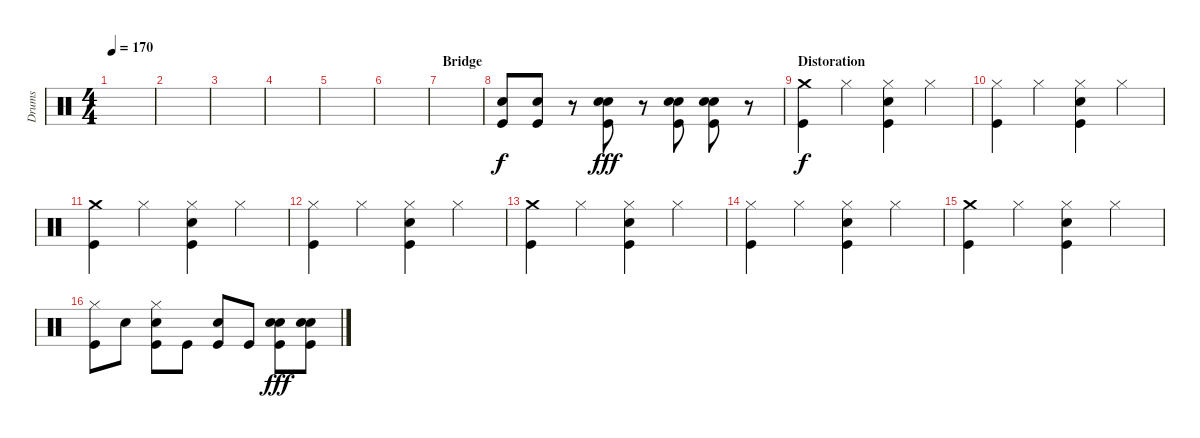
\track ("Drums" "Drums") {instrument percussion}
\staff {score}
\articulation defaults
\ts (4 4)
\tempo 170
\clef neutral
\ks c
|
|
|
|
|
|
\section ("" "Bridge")
|
("Snare (hit) 2" "Kick (hit)").8 ("Snare (hit) 2" "Kick (hit)").8 r.8 ("Electric Snare (hit)" "Snare (hit) 2" "Kick (hit)").8{dy fff} r.8 ("Electric Snare (hit)" "Snare (hit) 2" "Kick (hit)").8 ("Electric Snare (hit)" "Snare (hit) 2" "Kick (hit)").8 r.8 |
\section ("" "Distoration")
("Crash medium (hit)" "Kick (hit)").4{dy f} "Hi-Hat (closed)".4 ("Snare (hit) 2" "Hi-Hat (closed)" "Kick (hit)").4 "Hi-Hat (closed)".4 |
("Hi-Hat (closed)" "Kick (hit)").4 "Hi-Hat (closed)".4 ("Snare (hit) 2" "Hi-Hat (closed)" "Kick (hit)").4 "Hi-Hat (closed)".4 |
("Crash medium (hit)" "Kick (hit)").4 "Hi-Hat (closed)".4 ("Snare (hit) 2" "Hi-Hat (closed)" "Kick (hit)").4 "Hi-Hat (closed)".4 |
("Hi-Hat (closed)" "Kick (hit)").4 "Hi-Hat (closed)".4 ("Snare (hit) 2" "Hi-Hat (closed)" "Kick (hit)").4 "Hi-Hat (closed)".4 |
("Crash medium (hit)" "Kick (hit)").4 "Hi-Hat (closed)".4 ("Snare (hit) 2" "Hi-Hat (closed)" "Kick (hit)").4 "Hi-Hat (closed)".4 |
("Hi-Hat (closed)" "Kick (hit)").4 "Hi-Hat (closed)".4 ("Snare (hit) 2" "Hi-Hat (closed)" "Kick (hit)").4 "Hi-Hat (closed)".4 |
("Crash medium (hit)" "Kick (hit)").4 "Hi-Hat (closed)".4 ("Snare (hit) 2" "Hi-Hat (closed)" "Kick (hit)").4 "Hi-Hat (closed)".4 |
("Hi-Hat (closed)" "Kick (hit)").8 "Snare (hit) 2".8 ("Snare (hit) 2" "Hi-Hat (closed)" "Kick (hit)").8 "Kick (hit)".8 ("Snare (hit) 2" "Kick (hit)").8 "Kick (hit)".8 ("Electric Snare (hit)" "Snare (hit) 2" "Kick (hit)").8{dy fff} ("Electric Snare (hit)" "Snare (hit) 2" "Kick (hit)").8
